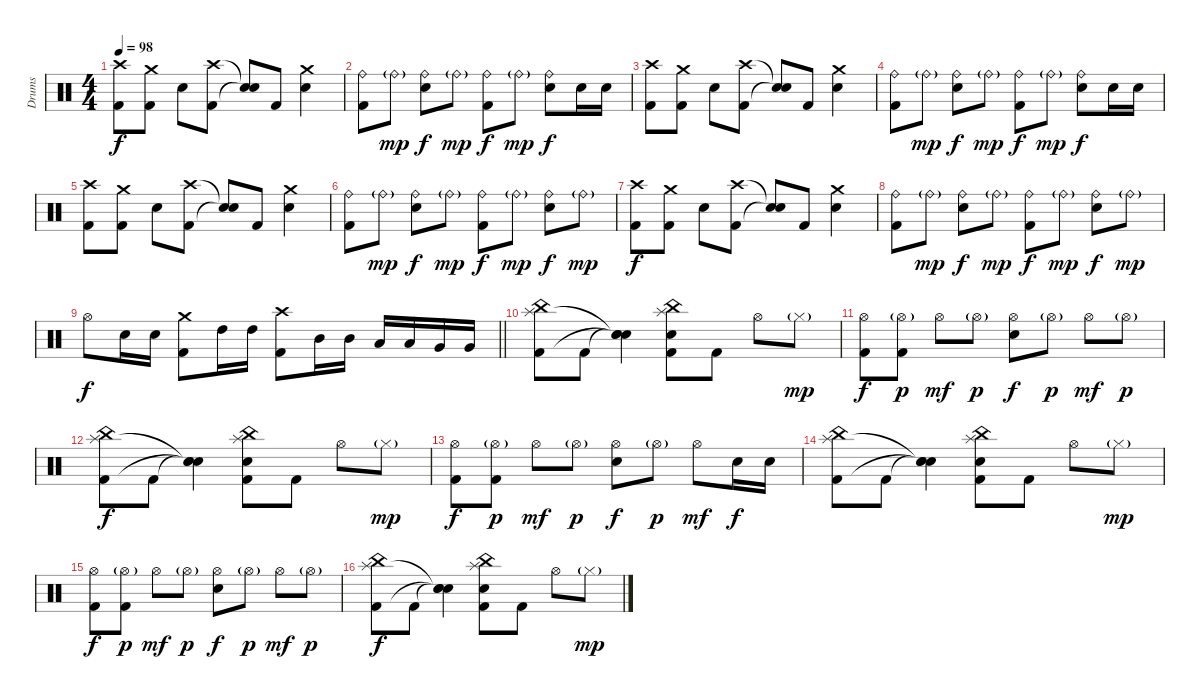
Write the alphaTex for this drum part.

\track ("Drums" "Drums") {instrument percussion}
\staff {score}
\articulation defaults
\ts (4 4)
\tempo 98
\clef neutral
\ks c
("Crash high (hit)" "Kick (hit) 2").8{dy f} ("Crash medium (hit)" "Kick (hit) 2").8 "Electric Snare (hit)".8 ("Crash high (hit)" "Kick (hit) 2").8 ("Snare (hit)"{t} "Snare (hit)"{t}).8 "Kick (hit) 2".8 ("Crash medium (hit)" "Electric Snare (hit)").4 |
("Ride (bell)" "Kick (hit) 2").8 "Ride (bell)"{g}.8{dy mp} ("Ride (bell)" "Electric Snare (hit)").8{dy f} "Ride (bell)"{g}.8{dy mp} ("Ride (bell)" "Kick (hit) 2").8{dy f} "Ride (bell)"{g}.8{dy mp} ("Ride (bell)" "Electric Snare (hit)").8{dy f} "Electric Snare (hit)".16 "Electric Snare (hit)".16 |
("Crash high (hit)" "Kick (hit) 2").8 ("Crash medium (hit)" "Kick (hit) 2").8 "Electric Snare (hit)".8 ("Crash high (hit)" "Kick (hit) 2").8 ("Snare (hit)"{t} "Snare (hit)"{t}).8 "Kick (hit) 2".8 ("Crash medium (hit)" "Electric Snare (hit)").4 |
("Ride (bell)" "Kick (hit) 2").8 "Ride (bell)"{g}.8{dy mp} ("Ride (bell)" "Electric Snare (hit)").8{dy f} "Ride (bell)"{g}.8{dy mp} ("Ride (bell)" "Kick (hit) 2").8{dy f} "Ride (bell)"{g}.8{dy mp} ("Ride (bell)" "Electric Snare (hit)").8{dy f} "Electric Snare (hit)".16 "Electric Snare (hit)".16 |
("Crash high (hit)" "Kick (hit) 2").8 ("Crash medium (hit)" "Kick (hit) 2").8 "Electric Snare (hit)".8 ("Crash high (hit)" "Kick (hit) 2").8 ("Snare (hit)"{t} "Snare (hit)"{t}).8 "Kick (hit) 2".8 ("Crash medium (hit)" "Electric Snare (hit)").4 |
("Ride (bell)" "Kick (hit) 2").8 "Ride (bell)"{g}.8{dy mp} ("Ride (bell)" "Electric Snare (hit)").8{dy f} "Ride (bell)"{g}.8{dy mp} ("Ride (bell)" "Kick (hit) 2").8{dy f} "Ride (bell)"{g}.8{dy mp} ("Ride (bell)" "Electric Snare (hit)").8{dy f} "Ride (bell)"{g}.8{dy mp} |
("Crash high (hit)" "Kick (hit) 2").8{dy f} ("Crash medium (hit)" "Kick (hit) 2").8 "Electric Snare (hit)".8 ("Crash high (hit)" "Kick (hit) 2").8 ("Snare (hit)"{t} "Snare (hit)"{t}).8 "Kick (hit) 2".8 ("Crash medium (hit)" "Electric Snare (hit)").4 |
("Ride (bell)" "Kick (hit) 2").8 "Ride (bell)"{g}.8{dy mp} ("Ride (bell)" "Electric Snare (hit)").8{dy f} "Ride (bell)"{g}.8{dy mp} ("Ride (bell)" "Kick (hit) 2").8{dy f} "Ride (bell)"{g}.8{dy mp} ("Ride (bell)" "Electric Snare (hit)").8{dy f} "Ride (bell)"{g}.8{dy mp} |
\barLineRight lightlight "Hi-Hat (open)".8{dy f} "Electric Snare (hit)".16 "Electric Snare (hit)".16
("Crash medium (hit)" "Kick (hit) 2").8 "High Tom (hit)".16 "High Tom (hit)".16 ("Crash high (hit)" "Kick (hit) 2").8 "Mid Tom (hit)".16 "Mid Tom (hit)".16 "Low Tom (hit)".16 "Low Tom (hit)".16 "Very Low Tom (hit)".16 "Very Low Tom (hit)".16 |
("China (hit)" "Splash (hit)" "Kick (hit) 2").8 "Kick (hit) 2".8 ("Snare (hit)"{t} "Snare (hit)"{t} "Snare (hit)"{t}).4 ("China (hit)" "Splash (hit)" "Electric Snare (hit)" "Kick (hit) 2").8 "Kick (hit) 2".8 "Hi-Hat (open)".8 "Hi-Hat (closed)"{g}.8{dy mp} |
("Hi-Hat (open)" "Kick (hit) 2").8{dy f} ("Hi-Hat (open)"{g} "Kick (hit) 2").8{dy p} "Hi-Hat (open)".8{dy mf} "Hi-Hat (open)"{g}.8{dy p} ("Hi-Hat (open)" "Electric Snare (hit)").8{dy f} "Hi-Hat (open)"{g}.8{dy p} "Hi-Hat (open)".8{dy mf} "Hi-Hat (open)"{g}.8{dy p} |
("China (hit)" "Splash (hit)" "Kick (hit) 2").8{dy f} "Kick (hit) 2".8 ("Snare (hit)"{t} "Snare (hit)"{t} "Snare (hit)"{t}).4 ("China (hit)" "Splash (hit)" "Electric Snare (hit)" "Kick (hit) 2").8 "Kick (hit) 2".8 "Hi-Hat (open)".8 "Hi-Hat (closed)"{g}.8{dy mp} |
("Hi-Hat (open)" "Kick (hit) 2").8{dy f} ("Hi-Hat (open)"{g} "Kick (hit) 2").8{dy p} "Hi-Hat (open)".8{dy mf} "Hi-Hat (open)"{g}.8{dy p} ("Hi-Hat (open)" "Electric Snare (hit)").8{dy f} "Hi-Hat (open)"{g}.8{dy p} "Hi-Hat (open)".8{dy mf} "Electric Snare (hit)".16{dy f} "Electric Snare (hit)".16 |
("China (hit)" "Splash (hit)" "Kick (hit) 2").8 "Kick (hit) 2".8 ("Snare (hit)"{t} "Snare (hit)"{t} "Snare (hit)"{t}).4 ("China (hit)" "Splash (hit)" "Electric Snare (hit)" "Kick (hit) 2").8 "Kick (hit) 2".8 "Hi-Hat (open)".8 "Hi-Hat (closed)"{g}.8{dy mp} |
("Hi-Hat (open)" "Kick (hit) 2").8{dy f} ("Hi-Hat (open)"{g} "Kick (hit) 2").8{dy p} "Hi-Hat (open)".8{dy mf} "Hi-Hat (open)"{g}.8{dy p} ("Hi-Hat (open)" "Electric Snare (hit)").8{dy f} "Hi-Hat (open)"{g}.8{dy p} "Hi-Hat (open)".8{dy mf} "Hi-Hat (open)"{g}.8{dy p} |
("China (hit)" "Splash (hit)" "Kick (hit) 2").8{dy f} "Kick (hit) 2".8 ("Snare (hit)"{t} "Snare (hit)"{t} "Snare (hit)"{t}).4 ("China (hit)" "Splash (hit)" "Electric Snare (hit)" "Kick (hit) 2").8 "Kick (hit) 2".8 "Hi-Hat (open)".8 "Hi-Hat (closed)"{g}.8{dy mp}
